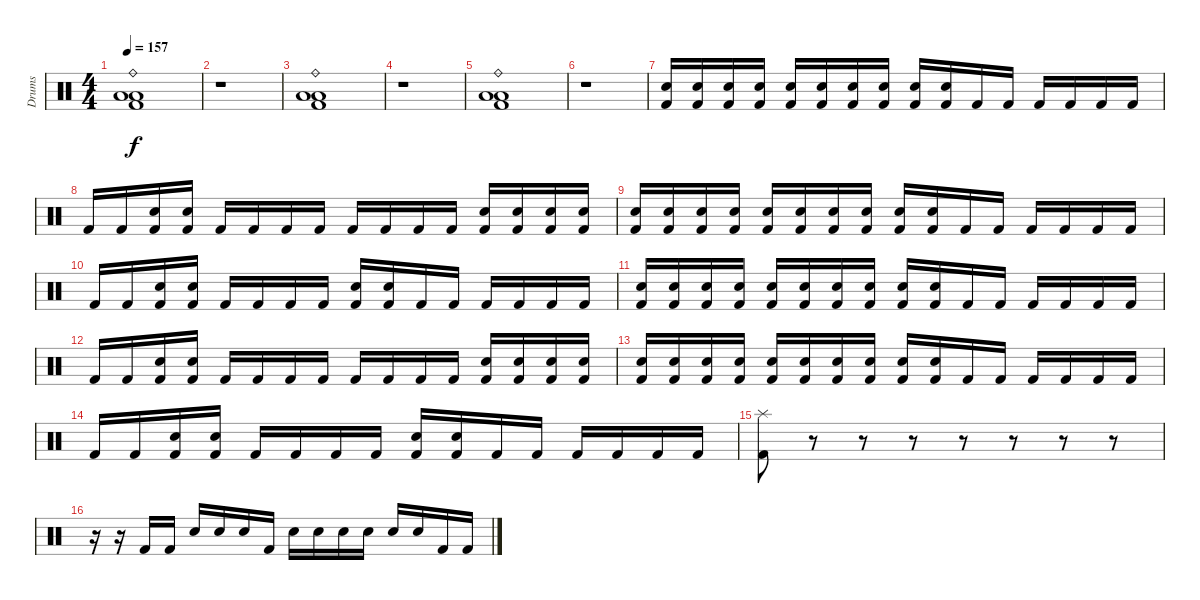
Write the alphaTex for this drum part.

\track ("Drums" "Drums") {instrument percussion}
\staff {score}
\articulation defaults
\ts (4 4)
\tempo 157
\clef neutral
\ks c
("Ride (bell)" "Low Floor Tom (hit)" "Low Tom (hit)" "Kick (hit) 2").1{dy f} |
r.1 |
("Ride (bell)" "Low Floor Tom (hit)" "Low Tom (hit)" "Kick (hit) 2").1 |
r.1 |
("Ride (bell)" "Low Floor Tom (hit)" "Low Tom (hit)" "Kick (hit) 2").1 |
r.1 |
("Electric Snare (hit)" "Kick (hit) 2").16 ("Electric Snare (hit)" "Kick (hit) 2").16 ("Electric Snare (hit)" "Kick (hit) 2").16 ("Electric Snare (hit)" "Kick (hit) 2").16 ("Electric Snare (hit)" "Kick (hit) 2").16 ("Electric Snare (hit)" "Kick (hit) 2").16 ("Electric Snare (hit)" "Kick (hit) 2").16 ("Electric Snare (hit)" "Kick (hit) 2").16 ("Electric Snare (hit)" "Kick (hit) 2").16 ("Electric Snare (hit)" "Kick (hit) 2").16 "Kick (hit) 2".16 "Kick (hit) 2".16 "Kick (hit) 2".16 "Kick (hit) 2".16 "Kick (hit) 2".16 "Kick (hit) 2".16 |
"Kick (hit) 2".16 "Kick (hit) 2".16 ("Electric Snare (hit)" "Kick (hit) 2").16 ("Electric Snare (hit)" "Kick (hit) 2").16 "Kick (hit) 2".16 "Kick (hit) 2".16 "Kick (hit) 2".16 "Kick (hit) 2".16 "Kick (hit) 2".16 "Kick (hit) 2".16 "Kick (hit) 2".16 "Kick (hit) 2".16 ("Electric Snare (hit)" "Kick (hit) 2").16 ("Electric Snare (hit)" "Kick (hit) 2").16 ("Electric Snare (hit)" "Kick (hit) 2").16 ("Electric Snare (hit)" "Kick (hit) 2").16 |
("Electric Snare (hit)" "Kick (hit) 2").16 ("Electric Snare (hit)" "Kick (hit) 2").16 ("Electric Snare (hit)" "Kick (hit) 2").16 ("Electric Snare (hit)" "Kick (hit) 2").16 ("Electric Snare (hit)" "Kick (hit) 2").16 ("Electric Snare (hit)" "Kick (hit) 2").16 ("Electric Snare (hit)" "Kick (hit) 2").16 ("Electric Snare (hit)" "Kick (hit) 2").16 ("Electric Snare (hit)" "Kick (hit) 2").16 ("Electric Snare (hit)" "Kick (hit) 2").16 "Kick (hit) 2".16 "Kick (hit) 2".16 "Kick (hit) 2".16 "Kick (hit) 2".16 "Kick (hit) 2".16 "Kick (hit) 2".16 |
"Kick (hit) 2".16 "Kick (hit) 2".16 ("Electric Snare (hit)" "Kick (hit) 2").16 ("Electric Snare (hit)" "Kick (hit) 2").16 "Kick (hit) 2".16 "Kick (hit) 2".16 "Kick (hit) 2".16 "Kick (hit) 2".16 ("Electric Snare (hit)" "Kick (hit) 2").16 ("Electric Snare (hit)" "Kick (hit) 2").16 "Kick (hit) 2".16 "Kick (hit) 2".16 "Kick (hit) 2".16 "Kick (hit) 2".16 "Kick (hit) 2".16 "Kick (hit) 2".16 |
("Electric Snare (hit)" "Kick (hit) 2").16 ("Electric Snare (hit)" "Kick (hit) 2").16 ("Electric Snare (hit)" "Kick (hit) 2").16 ("Electric Snare (hit)" "Kick (hit) 2").16 ("Electric Snare (hit)" "Kick (hit) 2").16 ("Electric Snare (hit)" "Kick (hit) 2").16 ("Electric Snare (hit)" "Kick (hit) 2").16 ("Electric Snare (hit)" "Kick (hit) 2").16 ("Electric Snare (hit)" "Kick (hit) 2").16 ("Electric Snare (hit)" "Kick (hit) 2").16 "Kick (hit) 2".16 "Kick (hit) 2".16 "Kick (hit) 2".16 "Kick (hit) 2".16 "Kick (hit) 2".16 "Kick (hit) 2".16 |
"Kick (hit) 2".16 "Kick (hit) 2".16 ("Electric Snare (hit)" "Kick (hit) 2").16 ("Electric Snare (hit)" "Kick (hit) 2").16 "Kick (hit) 2".16 "Kick (hit) 2".16 "Kick (hit) 2".16 "Kick (hit) 2".16 "Kick (hit) 2".16 "Kick (hit) 2".16 "Kick (hit) 2".16 "Kick (hit) 2".16 ("Electric Snare (hit)" "Kick (hit) 2").16 ("Electric Snare (hit)" "Kick (hit) 2").16 ("Electric Snare (hit)" "Kick (hit) 2").16 ("Electric Snare (hit)" "Kick (hit) 2").16 |
("Electric Snare (hit)" "Kick (hit) 2").16 ("Electric Snare (hit)" "Kick (hit) 2").16 ("Electric Snare (hit)" "Kick (hit) 2").16 ("Electric Snare (hit)" "Kick (hit) 2").16 ("Electric Snare (hit)" "Kick (hit) 2").16 ("Electric Snare (hit)" "Kick (hit) 2").16 ("Electric Snare (hit)" "Kick (hit) 2").16 ("Electric Snare (hit)" "Kick (hit) 2").16 ("Electric Snare (hit)" "Kick (hit) 2").16 ("Electric Snare (hit)" "Kick (hit) 2").16 "Kick (hit) 2".16 "Kick (hit) 2".16 "Kick (hit) 2".16 "Kick (hit) 2".16 "Kick (hit) 2".16 "Kick (hit) 2".16 |
"Kick (hit) 2".16 "Kick (hit) 2".16 ("Electric Snare (hit)" "Kick (hit) 2").16 ("Electric Snare (hit)" "Kick (hit) 2").16 "Kick (hit) 2".16 "Kick (hit) 2".16 "Kick (hit) 2".16 "Kick (hit) 2".16 ("Electric Snare (hit)" "Kick (hit) 2").16 ("Electric Snare (hit)" "Kick (hit) 2").16 "Kick (hit) 2".16 "Kick (hit) 2".16 "Kick (hit) 2".16 "Kick (hit) 2".16 "Kick (hit) 2".16 "Kick (hit) 2".16 |
("Splash (hit)" "Kick (hit) 2").8 r.8 r.8 r.8 r.8 r.8 r.8 r.8 |
r.16 r.16 "Kick (hit) 2".16 "Kick (hit) 2".16 "Electric Snare (hit)".16 "Electric Snare (hit)".16 "Electric Snare (hit)".16 "Kick (hit) 2".16 "Electric Snare (hit)".16 "Electric Snare (hit)".16 "Electric Snare (hit)".16 "Electric Snare (hit)".16 "Electric Snare (hit)".16 "Electric Snare (hit)".16 "Kick (hit) 2".16 "Kick (hit) 2".16
